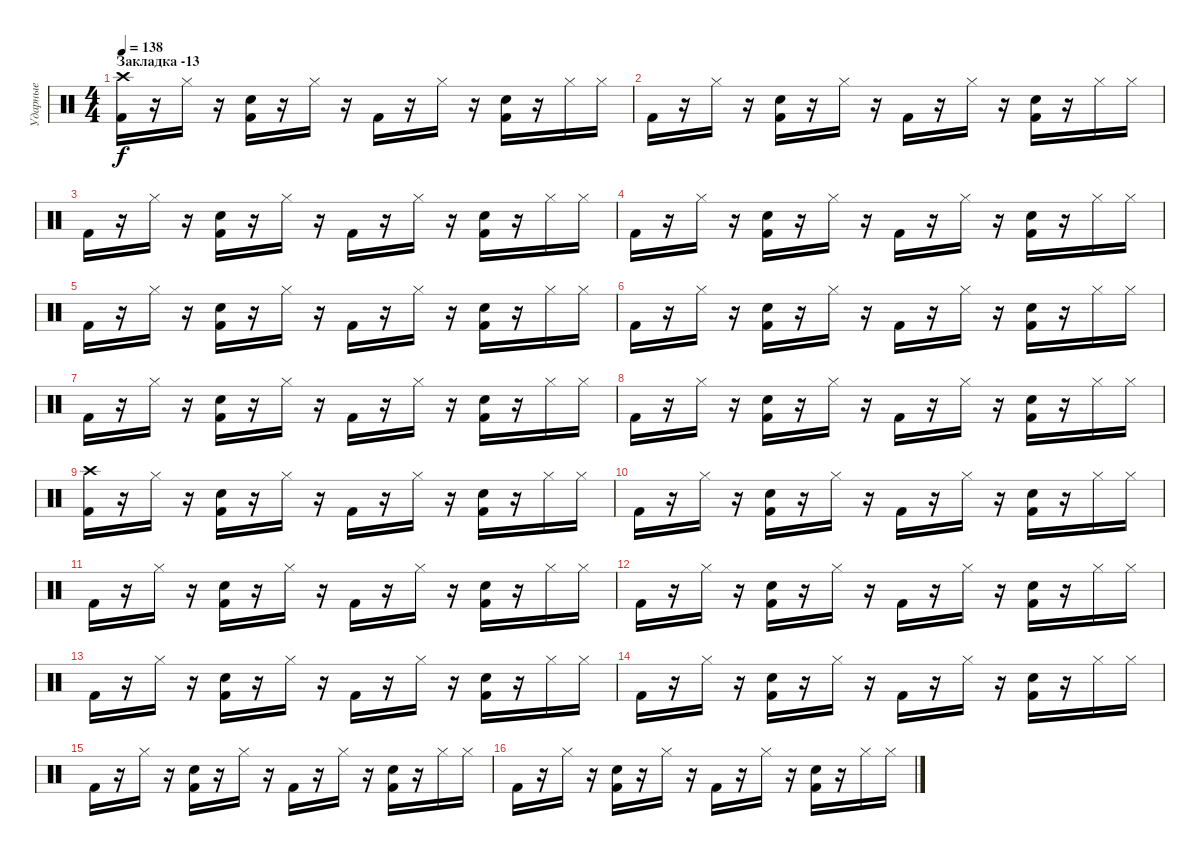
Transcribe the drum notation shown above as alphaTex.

\track ("Ударные" "Ударные") {instrument percussion}
\staff {score}
\articulation defaults
\ts (4 4)
\section ("" "Закладка -13")
\tempo 138
\clef neutral
\ks c
("Crash high (hit)" "Kick (hit) 2").16{dy f} r.16 "Hi-Hat (closed)".16 r.16 ("Electric Snare (hit)" "Kick (hit) 2").16 r.16 "Hi-Hat (closed)".16 r.16 "Kick (hit) 2".16 r.16 "Hi-Hat (closed)".16 r.16 ("Electric Snare (hit)" "Kick (hit) 2").16 r.16 "Hi-Hat (closed)".16 "Hi-Hat (closed)".16 |
"Kick (hit) 2".16 r.16 "Hi-Hat (closed)".16 r.16 ("Electric Snare (hit)" "Kick (hit) 2").16 r.16 "Hi-Hat (closed)".16 r.16 "Kick (hit) 2".16 r.16 "Hi-Hat (closed)".16 r.16 ("Electric Snare (hit)" "Kick (hit) 2").16 r.16 "Hi-Hat (closed)".16 "Hi-Hat (closed)".16 |
"Kick (hit) 2".16 r.16 "Hi-Hat (closed)".16 r.16 ("Electric Snare (hit)" "Kick (hit) 2").16 r.16 "Hi-Hat (closed)".16 r.16 "Kick (hit) 2".16 r.16 "Hi-Hat (closed)".16 r.16 ("Electric Snare (hit)" "Kick (hit) 2").16 r.16 "Hi-Hat (closed)".16 "Hi-Hat (closed)".16 |
"Kick (hit) 2".16 r.16 "Hi-Hat (closed)".16 r.16 ("Electric Snare (hit)" "Kick (hit) 2").16 r.16 "Hi-Hat (closed)".16 r.16 "Kick (hit) 2".16 r.16 "Hi-Hat (closed)".16 r.16 ("Electric Snare (hit)" "Kick (hit) 2").16 r.16 "Hi-Hat (closed)".16 "Hi-Hat (closed)".16 |
"Kick (hit) 2".16 r.16 "Hi-Hat (closed)".16 r.16 ("Electric Snare (hit)" "Kick (hit) 2").16 r.16 "Hi-Hat (closed)".16 r.16 "Kick (hit) 2".16 r.16 "Hi-Hat (closed)".16 r.16 ("Electric Snare (hit)" "Kick (hit) 2").16 r.16 "Hi-Hat (closed)".16 "Hi-Hat (closed)".16 |
"Kick (hit) 2".16 r.16 "Hi-Hat (closed)".16 r.16 ("Electric Snare (hit)" "Kick (hit) 2").16 r.16 "Hi-Hat (closed)".16 r.16 "Kick (hit) 2".16 r.16 "Hi-Hat (closed)".16 r.16 ("Electric Snare (hit)" "Kick (hit) 2").16 r.16 "Hi-Hat (closed)".16 "Hi-Hat (closed)".16 |
"Kick (hit) 2".16 r.16 "Hi-Hat (closed)".16 r.16 ("Electric Snare (hit)" "Kick (hit) 2").16 r.16 "Hi-Hat (closed)".16 r.16 "Kick (hit) 2".16 r.16 "Hi-Hat (closed)".16 r.16 ("Electric Snare (hit)" "Kick (hit) 2").16 r.16 "Hi-Hat (closed)".16 "Hi-Hat (closed)".16 |
"Kick (hit) 2".16 r.16 "Hi-Hat (closed)".16 r.16 ("Electric Snare (hit)" "Kick (hit) 2").16 r.16 "Hi-Hat (closed)".16 r.16 "Kick (hit) 2".16 r.16 "Hi-Hat (closed)".16 r.16 ("Electric Snare (hit)" "Kick (hit) 2").16 r.16 "Hi-Hat (closed)".16 "Hi-Hat (closed)".16 |
("Crash high (hit)" "Kick (hit) 2").16 r.16 "Hi-Hat (closed)".16 r.16 ("Electric Snare (hit)" "Kick (hit) 2").16 r.16 "Hi-Hat (closed)".16 r.16 "Kick (hit) 2".16 r.16 "Hi-Hat (closed)".16 r.16 ("Electric Snare (hit)" "Kick (hit) 2").16 r.16 "Hi-Hat (closed)".16 "Hi-Hat (closed)".16 |
"Kick (hit) 2".16 r.16 "Hi-Hat (closed)".16 r.16 ("Electric Snare (hit)" "Kick (hit) 2").16 r.16 "Hi-Hat (closed)".16 r.16 "Kick (hit) 2".16 r.16 "Hi-Hat (closed)".16 r.16 ("Electric Snare (hit)" "Kick (hit) 2").16 r.16 "Hi-Hat (closed)".16 "Hi-Hat (closed)".16 |
"Kick (hit) 2".16 r.16 "Hi-Hat (closed)".16 r.16 ("Electric Snare (hit)" "Kick (hit) 2").16 r.16 "Hi-Hat (closed)".16 r.16 "Kick (hit) 2".16 r.16 "Hi-Hat (closed)".16 r.16 ("Electric Snare (hit)" "Kick (hit) 2").16 r.16 "Hi-Hat (closed)".16 "Hi-Hat (closed)".16 |
"Kick (hit) 2".16 r.16 "Hi-Hat (closed)".16 r.16 ("Electric Snare (hit)" "Kick (hit) 2").16 r.16 "Hi-Hat (closed)".16 r.16 "Kick (hit) 2".16 r.16 "Hi-Hat (closed)".16 r.16 ("Electric Snare (hit)" "Kick (hit) 2").16 r.16 "Hi-Hat (closed)".16 "Hi-Hat (closed)".16 |
"Kick (hit) 2".16 r.16 "Hi-Hat (closed)".16 r.16 ("Electric Snare (hit)" "Kick (hit) 2").16 r.16 "Hi-Hat (closed)".16 r.16 "Kick (hit) 2".16 r.16 "Hi-Hat (closed)".16 r.16 ("Electric Snare (hit)" "Kick (hit) 2").16 r.16 "Hi-Hat (closed)".16 "Hi-Hat (closed)".16 |
"Kick (hit) 2".16 r.16 "Hi-Hat (closed)".16 r.16 ("Electric Snare (hit)" "Kick (hit) 2").16 r.16 "Hi-Hat (closed)".16 r.16 "Kick (hit) 2".16 r.16 "Hi-Hat (closed)".16 r.16 ("Electric Snare (hit)" "Kick (hit) 2").16 r.16 "Hi-Hat (closed)".16 "Hi-Hat (closed)".16 |
"Kick (hit) 2".16 r.16 "Hi-Hat (closed)".16 r.16 ("Electric Snare (hit)" "Kick (hit) 2").16 r.16 "Hi-Hat (closed)".16 r.16 "Kick (hit) 2".16 r.16 "Hi-Hat (closed)".16 r.16 ("Electric Snare (hit)" "Kick (hit) 2").16 r.16 "Hi-Hat (closed)".16 "Hi-Hat (closed)".16 |
"Kick (hit) 2".16 r.16 "Hi-Hat (closed)".16 r.16 ("Electric Snare (hit)" "Kick (hit) 2").16 r.16 "Hi-Hat (closed)".16 r.16 "Kick (hit) 2".16 r.16 "Hi-Hat (closed)".16 r.16 ("Electric Snare (hit)" "Kick (hit) 2").16 r.16 "Hi-Hat (closed)".16 "Hi-Hat (closed)".16
